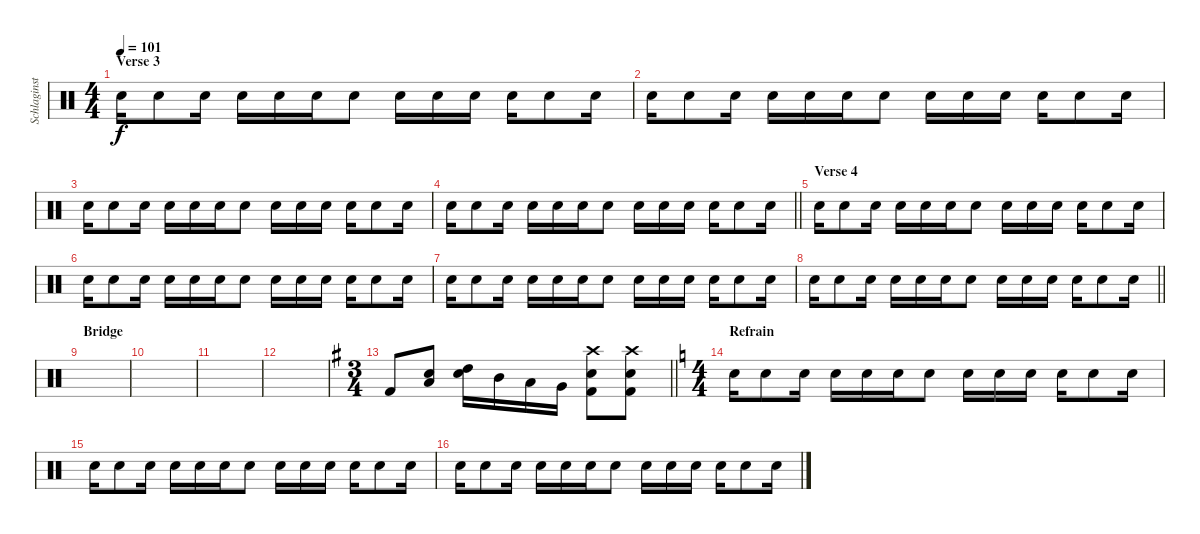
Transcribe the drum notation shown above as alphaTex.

\track ("Schlaginstrumente - Auswahl" "Schlaginst") {instrument percussion}
\staff {score}
\articulation defaults
\ts (4 4)
\section ("" "Verse 3")
\tempo 101
\clef neutral
\ks c "Electric Snare (hit)".16{dy f volume 4} "Electric Snare (hit)".8 "Electric Snare (hit)".16 "Electric Snare (hit)".16 "Electric Snare (hit)".16 "Electric Snare (hit)".16 "Electric Snare (hit)".8 "Electric Snare (hit)".16 "Electric Snare (hit)".16 "Electric Snare (hit)".16 "Electric Snare (hit)".16 "Electric Snare (hit)".8 "Electric Snare (hit)".16
|
"Electric Snare (hit)".16 "Electric Snare (hit)".8 "Electric Snare (hit)".16 "Electric Snare (hit)".16 "Electric Snare (hit)".16 "Electric Snare (hit)".16 "Electric Snare (hit)".8 "Electric Snare (hit)".16 "Electric Snare (hit)".16 "Electric Snare (hit)".16 "Electric Snare (hit)".16 "Electric Snare (hit)".8 "Electric Snare (hit)".16 |
"Electric Snare (hit)".16 "Electric Snare (hit)".8 "Electric Snare (hit)".16 "Electric Snare (hit)".16 "Electric Snare (hit)".16 "Electric Snare (hit)".16 "Electric Snare (hit)".8 "Electric Snare (hit)".16 "Electric Snare (hit)".16 "Electric Snare (hit)".16 "Electric Snare (hit)".16 "Electric Snare (hit)".8 "Electric Snare (hit)".16 |
\barLineRight lightlight "Electric Snare (hit)".16 "Electric Snare (hit)".8 "Electric Snare (hit)".16 "Electric Snare (hit)".16 "Electric Snare (hit)".16 "Electric Snare (hit)".16 "Electric Snare (hit)".8 "Electric Snare (hit)".16 "Electric Snare (hit)".16 "Electric Snare (hit)".16 "Electric Snare (hit)".16 "Electric Snare (hit)".8 "Electric Snare (hit)".16
|
\section ("" "Verse 4")
"Electric Snare (hit)".16{volume 4} "Electric Snare (hit)".8 "Electric Snare (hit)".16 "Electric Snare (hit)".16 "Electric Snare (hit)".16 "Electric Snare (hit)".16 "Electric Snare (hit)".8 "Electric Snare (hit)".16 "Electric Snare (hit)".16 "Electric Snare (hit)".16 "Electric Snare (hit)".16 "Electric Snare (hit)".8 "Electric Snare (hit)".16 |
"Electric Snare (hit)".16 "Electric Snare (hit)".8 "Electric Snare (hit)".16 "Electric Snare (hit)".16 "Electric Snare (hit)".16 "Electric Snare (hit)".16 "Electric Snare (hit)".8 "Electric Snare (hit)".16 "Electric Snare (hit)".16 "Electric Snare (hit)".16 "Electric Snare (hit)".16 "Electric Snare (hit)".8 "Electric Snare (hit)".16 |
"Electric Snare (hit)".16 "Electric Snare (hit)".8 "Electric Snare (hit)".16 "Electric Snare (hit)".16 "Electric Snare (hit)".16 "Electric Snare (hit)".16 "Electric Snare (hit)".8 "Electric Snare (hit)".16 "Electric Snare (hit)".16 "Electric Snare (hit)".16 "Electric Snare (hit)".16 "Electric Snare (hit)".8 "Electric Snare (hit)".16 |
\barLineRight lightlight "Electric Snare (hit)".16 "Electric Snare (hit)".8 "Electric Snare (hit)".16 "Electric Snare (hit)".16 "Electric Snare (hit)".16 "Electric Snare (hit)".16 "Electric Snare (hit)".8 "Electric Snare (hit)".16 "Electric Snare (hit)".16 "Electric Snare (hit)".16 "Electric Snare (hit)".16 "Electric Snare (hit)".8 "Electric Snare (hit)".16
|
\section ("" "Bridge")
|
|
|
|
\ts (3 4)
\barLineRight lightlight
\ks g "Kick (hit) 2".8{volume 16}
("Low Floor Tom (hit)" "Snare (hit) 2").8 ("High Tom (hit)" "Snare (hit) 2").16 "Mid Tom (hit)".16 "Low Tom (hit)".16 "Very Low Tom (hit)".16 ("Snare (hit) 2" "Crash high (hit)" "Kick (hit) 2").8 ("Crash high (hit)" "Snare (hit) 2" "Kick (hit) 2").8 |
\ts (4 4)
\section ("" "Refrain")
\ks c "Electric Snare (hit)".16{volume 4} "Electric Snare (hit)".8 "Electric Snare (hit)".16 "Electric Snare (hit)".16 "Electric Snare (hit)".16 "Electric Snare (hit)".16 "Electric Snare (hit)".8 "Electric Snare (hit)".16 "Electric Snare (hit)".16 "Electric Snare (hit)".16 "Electric Snare (hit)".16 "Electric Snare (hit)".8 "Electric Snare (hit)".16
|
"Electric Snare (hit)".16 "Electric Snare (hit)".8 "Electric Snare (hit)".16 "Electric Snare (hit)".16 "Electric Snare (hit)".16 "Electric Snare (hit)".16 "Electric Snare (hit)".8 "Electric Snare (hit)".16 "Electric Snare (hit)".16 "Electric Snare (hit)".16 "Electric Snare (hit)".16 "Electric Snare (hit)".8 "Electric Snare (hit)".16 |
"Electric Snare (hit)".16 "Electric Snare (hit)".8 "Electric Snare (hit)".16 "Electric Snare (hit)".16 "Electric Snare (hit)".16 "Electric Snare (hit)".16 "Electric Snare (hit)".8 "Electric Snare (hit)".16 "Electric Snare (hit)".16 "Electric Snare (hit)".16 "Electric Snare (hit)".16 "Electric Snare (hit)".8 "Electric Snare (hit)".16
